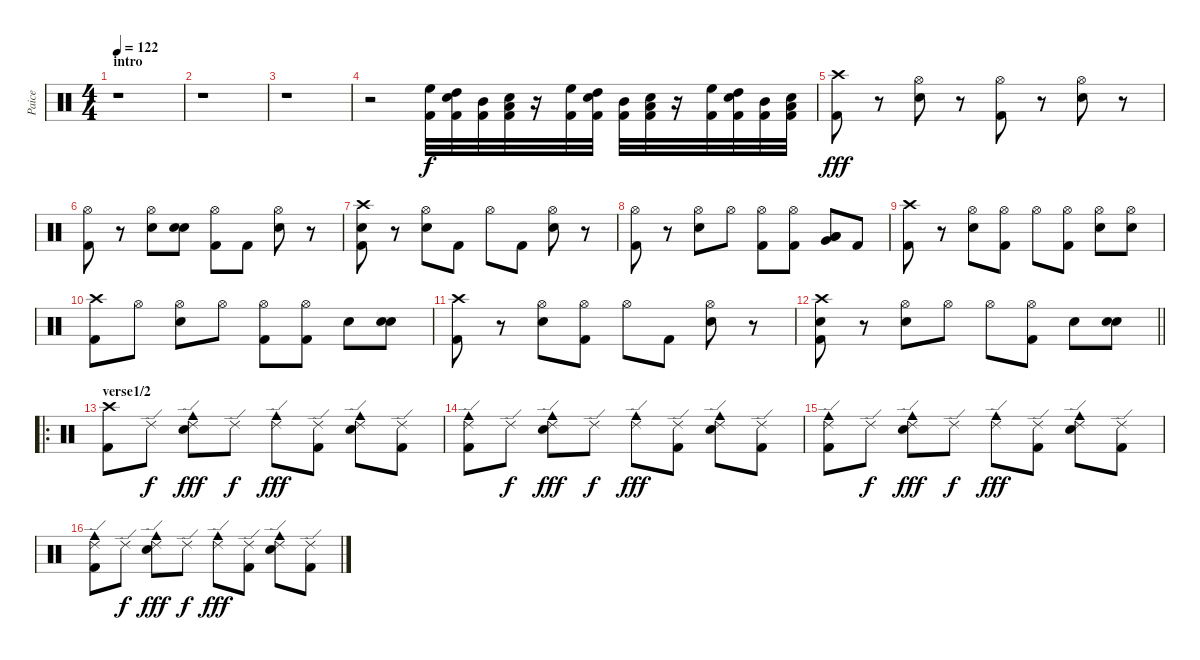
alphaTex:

\track ("Paice" "Paice") {instrument percussion}
\staff {score}
\articulation defaults
\ts (4 4)
\section ("" "intro")
\tempo 122
\clef neutral
\ks c
r.1{dy f} |
r.1 |
r.1 |
r.2 ("High Floor Tom (hit)" "Kick (hit) 2").32 ("High Tom (hit)" "Electric Snare (hit)" "Kick (hit) 2").32 ("Mid Tom (hit)" "Kick (hit) 2").32 ("Low Tom (hit)" "Electric Snare (hit)" "Kick (hit) 2").32 r.16 ("High Floor Tom (hit)" "Kick (hit) 2").32 ("High Tom (hit)" "Electric Snare (hit)" "Kick (hit) 2").32 ("Mid Tom (hit)" "Kick (hit) 2").32 ("Low Tom (hit)" "Electric Snare (hit)" "Kick (hit) 2").32 r.16 ("High Floor Tom (hit)" "Kick (hit) 2").32 ("High Tom (hit)" "Electric Snare (hit)" "Kick (hit) 2").32 ("Mid Tom (hit)" "Kick (hit) 2").32 ("Low Tom (hit)" "Electric Snare (hit)" "Kick (hit) 2").32 |
("Crash high (hit)" "Kick (hit) 2").8{dy fff} r.8 ("Hi-Hat (open)" "Electric Snare (hit)").8 r.8 ("Kick (hit) 2" "Hi-Hat (open)").8 r.8 ("Electric Snare (hit)" "Hi-Hat (open)").8 r.8 |
("Kick (hit) 2" "Hi-Hat (open)").8 r.8 ("Electric Snare (hit)" "Hi-Hat (open)").8 ("Electric Snare (hit)" "Electric Snare (hit)").8 ("Hi-Hat (open)" "Kick (hit) 2").8 "Kick (hit) 2".8 ("Hi-Hat (open)" "Electric Snare (hit)").8 r.8 |
("Electric Snare (hit)" "Kick (hit) 2" "Crash high (hit)").8 r.8 ("Electric Snare (hit)" "Hi-Hat (open)").8 "Kick (hit) 2".8 "Hi-Hat (open)".8 "Kick (hit) 2".8 ("Hi-Hat (open)" "Electric Snare (hit)").8 r.8 |
("Hi-Hat (open)" "Kick (hit) 2").8 r.8 ("Electric Snare (hit)" "Hi-Hat (open)").8 "Hi-Hat (open)".8 ("Kick (hit) 2" "Hi-Hat (open)").8 ("Hi-Hat (open)" "Kick (hit) 2").8 ("Low Tom (hit)" "Low Tom (hit)" "Very Low Tom (hit)").8 "Kick (hit) 2".8 |
("Crash high (hit)" "Kick (hit) 2").8 r.8 ("Hi-Hat (open)" "Electric Snare (hit)").8 ("Kick (hit) 2" "Hi-Hat (open)").8 "Hi-Hat (open)".8 ("Hi-Hat (open)" "Kick (hit) 2").8 ("Electric Snare (hit)" "Hi-Hat (open)").8 ("Hi-Hat (open)" "Electric Snare (hit)").8 |
("Crash high (hit)" "Kick (hit) 2").8 "Hi-Hat (open)".8 ("Electric Snare (hit)" "Hi-Hat (open)").8 "Hi-Hat (open)".8 ("Kick (hit) 2" "Hi-Hat (open)").8 ("Kick (hit) 2" "Hi-Hat (open)").8 "Electric Snare (hit)".8 ("Electric Snare (hit)" "Electric Snare (hit)").8 |
("Kick (hit) 2" "Crash high (hit)").8 r.8 ("Hi-Hat (open)" "Electric Snare (hit)").8 ("Kick (hit) 2" "Hi-Hat (open)").8 "Hi-Hat (open)".8 "Kick (hit) 2".8 ("Hi-Hat (open)" "Electric Snare (hit)").8 r.8 |
\barLineRight lightlight
("Electric Snare (hit)" "Crash high (hit)" "Kick (hit) 2").8 r.8 ("Electric Snare (hit)" "Hi-Hat (open)").8 "Hi-Hat (open)".8 "Hi-Hat (open)".8 ("Hi-Hat (open)" "Kick (hit) 2").8 "Electric Snare (hit)".8 ("Electric Snare (hit)" "Electric Snare (hit)").8 |
\ro
\section ("" "verse1/2")
("Kick (hit) 2" "Crash high (hit)").8 "Ride (edge) 2".8{dy f} ("Cowbell medium (hit)" "Electric Snare (hit)" "Ride (edge) 2").8{dy fff} "Ride (edge) 2".8{dy f} ("Cowbell medium (hit)" "Ride (edge) 2").8{dy fff} ("Ride (edge) 2" "Kick (hit) 2").8 ("Cowbell medium (hit)" "Electric Snare (hit)" "Ride (edge) 2").8 ("Ride (edge) 2" "Kick (hit) 2").8 |
("Ride (edge) 2" "Kick (hit) 2" "Cowbell medium (hit)").8 "Ride (edge) 2".8{dy f} ("Ride (edge) 2" "Electric Snare (hit)" "Cowbell medium (hit)").8{dy fff} "Ride (edge) 2".8{dy f} ("Ride (edge) 2" "Cowbell medium (hit)").8{dy fff} ("Kick (hit) 2" "Ride (edge) 2").8 ("Electric Snare (hit)" "Cowbell medium (hit)" "Ride (edge) 2").8 ("Ride (edge) 2" "Kick (hit) 2").8 |
("Kick (hit) 2" "Cowbell medium (hit)" "Ride (edge) 2").8 "Ride (edge) 2".8{dy f} ("Ride (edge) 2" "Electric Snare (hit)" "Cowbell medium (hit)").8{dy fff} "Ride (edge) 2".8{dy f} ("Ride (edge) 2" "Cowbell medium (hit)").8{dy fff} ("Kick (hit) 2" "Ride (edge) 2").8 ("Cowbell medium (hit)" "Electric Snare (hit)" "Ride (edge) 2").8 ("Ride (edge) 2" "Kick (hit) 2").8 |
("Kick (hit) 2" "Cowbell medium (hit)" "Ride (edge) 2").8 "Ride (edge) 2".8{dy f} ("Ride (edge) 2" "Cowbell medium (hit)" "Electric Snare (hit)").8{dy fff} "Ride (edge) 2".8{dy f} ("Cowbell medium (hit)" "Ride (edge) 2").8{dy fff} ("Kick (hit) 2" "Ride (edge) 2").8 ("Ride (edge) 2" "Electric Snare (hit)" "Cowbell medium (hit)").8 ("Kick (hit) 2" "Ride (edge) 2").8
